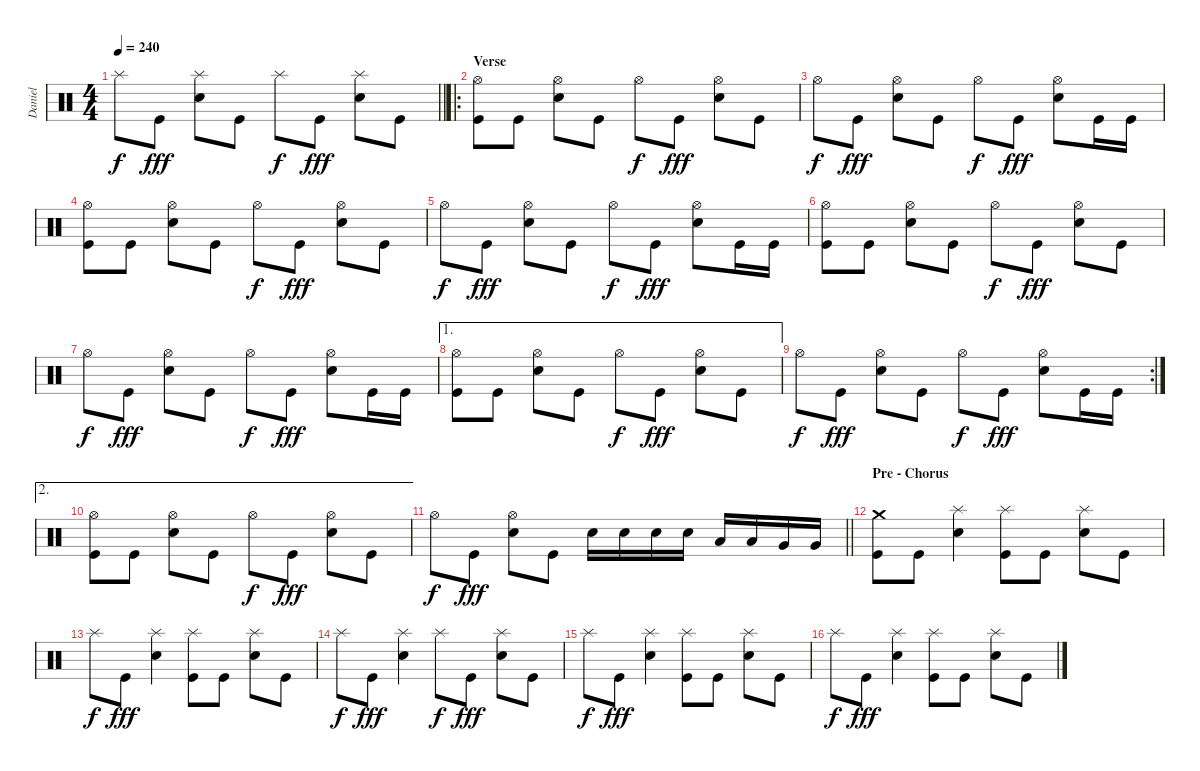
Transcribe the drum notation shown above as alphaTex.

\track ("Daniel" "Daniel") {instrument percussion}
\staff {score}
\articulation defaults
\ts (4 4)
\tempo 240
\clef neutral
\barLineRight lightlight
\ks c "Splash (hit)".8{dy f} "Kick (hit)".8{dy fff}
("Electric Snare (hit)" "Splash (hit)").8 "Kick (hit)".8 "Splash (hit)".8{dy f} "Kick (hit)".8{dy fff} ("Electric Snare (hit)" "Splash (hit)").8 "Kick (hit)".8 |
\ro
\section ("" "Verse")
("Kick (hit)" "Hi-Hat (open)").8 "Kick (hit)".8 ("Electric Snare (hit)" "Hi-Hat (open)").8 "Kick (hit)".8 "Hi-Hat (open)".8{dy f} "Kick (hit)".8{dy fff} ("Electric Snare (hit)" "Hi-Hat (open)").8 "Kick (hit)".8 |
"Hi-Hat (open)".8{dy f} "Kick (hit)".8{dy fff} ("Electric Snare (hit)" "Hi-Hat (open)").8 "Kick (hit)".8 "Hi-Hat (open)".8{dy f} "Kick (hit)".8{dy fff} ("Electric Snare (hit)" "Hi-Hat (open)").8 "Kick (hit)".16 "Kick (hit)".16 |
("Kick (hit)" "Hi-Hat (open)").8 "Kick (hit)".8 ("Electric Snare (hit)" "Hi-Hat (open)").8 "Kick (hit)".8 "Hi-Hat (open)".8{dy f} "Kick (hit)".8{dy fff} ("Electric Snare (hit)" "Hi-Hat (open)").8 "Kick (hit)".8 |
"Hi-Hat (open)".8{dy f} "Kick (hit)".8{dy fff} ("Electric Snare (hit)" "Hi-Hat (open)").8 "Kick (hit)".8 "Hi-Hat (open)".8{dy f} "Kick (hit)".8{dy fff} ("Electric Snare (hit)" "Hi-Hat (open)").8 "Kick (hit)".16 "Kick (hit)".16 |
("Kick (hit)" "Hi-Hat (open)").8 "Kick (hit)".8 ("Electric Snare (hit)" "Hi-Hat (open)").8 "Kick (hit)".8 "Hi-Hat (open)".8{dy f} "Kick (hit)".8{dy fff} ("Electric Snare (hit)" "Hi-Hat (open)").8 "Kick (hit)".8 |
"Hi-Hat (open)".8{dy f} "Kick (hit)".8{dy fff} ("Electric Snare (hit)" "Hi-Hat (open)").8 "Kick (hit)".8 "Hi-Hat (open)".8{dy f} "Kick (hit)".8{dy fff} ("Electric Snare (hit)" "Hi-Hat (open)").8 "Kick (hit)".16 "Kick (hit)".16 |
\ae 1
("Kick (hit)" "Hi-Hat (open)").8{volume 14 balance 0} "Kick (hit)".8 ("Electric Snare (hit)" "Hi-Hat (open)").8{balance 16} "Kick (hit)".8 "Hi-Hat (open)".8{dy f balance 0} "Kick (hit)".8{dy fff} ("Electric Snare (hit)" "Hi-Hat (open)").8{balance 16} "Kick (hit)".8 |
\rc 2 "Hi-Hat (open)".8{dy f volume 12 balance 8} "Kick (hit)".8{dy fff}
("Electric Snare (hit)" "Hi-Hat (open)").8 "Kick (hit)".8 "Hi-Hat (open)".8{dy f} "Kick (hit)".8{dy fff} ("Electric Snare (hit)" "Hi-Hat (open)").8 "Kick (hit)".16 "Kick (hit)".16 |
\ae 2
("Kick (hit)" "Hi-Hat (open)").8 "Kick (hit)".8 ("Electric Snare (hit)" "Hi-Hat (open)").8 "Kick (hit)".8 "Hi-Hat (open)".8{dy f} "Kick (hit)".8{dy fff} ("Electric Snare (hit)" "Hi-Hat (open)").8 "Kick (hit)".8 |
\barLineRight lightlight "Hi-Hat (open)".8{dy f} "Kick (hit)".8{dy fff}
("Electric Snare (hit)" "Hi-Hat (open)").8 "Kick (hit)".8 "Electric Snare (hit)".16{balance 0} "Electric Snare (hit)".16 "Electric Snare (hit)".16{balance 3} "Electric Snare (hit)".16 "Low Tom (hit)".16{balance 12} "Low Tom (hit)".16 "Very Low Tom (hit)".16{balance 15} "Very Low Tom (hit)".16 |
\section ("" "Pre - Chorus")
("Kick (hit)" "Crash medium (hit)").8{balance 8} "Kick (hit)".8 ("Electric Snare (hit)" "Splash (hit)").4 ("Kick (hit)" "Splash (hit)").8 "Kick (hit)".8 ("Electric Snare (hit)" "Splash (hit)").8 "Kick (hit)".8 |
"Splash (hit)".8{dy f} "Kick (hit)".8{dy fff} ("Electric Snare (hit)" "Splash (hit)").4 ("Kick (hit)" "Splash (hit)").8 "Kick (hit)".8 ("Electric Snare (hit)" "Splash (hit)").8 "Kick (hit)".8 |
"Splash (hit)".8{dy f} "Kick (hit)".8{dy fff} ("Electric Snare (hit)" "Splash (hit)").4 "Splash (hit)".8{dy f} "Kick (hit)".8{dy fff} ("Electric Snare (hit)" "Splash (hit)").8 "Kick (hit)".8 |
"Splash (hit)".8{dy f} "Kick (hit)".8{dy fff} ("Electric Snare (hit)" "Splash (hit)").4 ("Kick (hit)" "Splash (hit)").8 "Kick (hit)".8 ("Electric Snare (hit)" "Splash (hit)").8 "Kick (hit)".8 |
"Splash (hit)".8{dy f} "Kick (hit)".8{dy fff} ("Electric Snare (hit)" "Splash (hit)").4 ("Kick (hit)" "Splash (hit)").8 "Kick (hit)".8 ("Electric Snare (hit)" "Splash (hit)").8 "Kick (hit)".8
